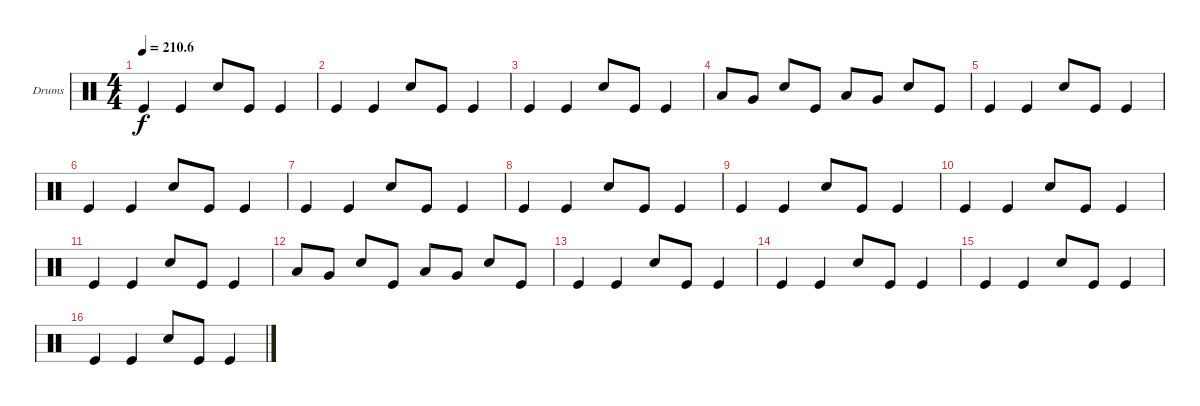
\defaultSystemsLayout 4
\bracketExtendMode groupsimilarinstruments
\firstSystemTrackNameOrientation horizontal
\otherSystemsTrackNameOrientation horizontal
\track ("Drumkit" "Drums") {instrument percussion}
\staff {score}
\articulation defaults
\ts (4 4)
\tempo
210.6
\accidentals auto
\clef neutral
\ottava regular
\simile none
\ks c "Kick (hit)".4{dy f} "Kick (hit)".4 "Snare (hit) 2".8 "Kick (hit)".8 "Kick (hit)".4
|
"Kick (hit)".4 "Kick (hit)".4 "Snare (hit) 2".8 "Kick (hit)".8 "Kick (hit)".4 |
"Kick (hit)".4 "Kick (hit)".4 "Snare (hit) 2".8 "Kick (hit)".8 "Kick (hit)".4 |
"Low Tom (hit)".8 "Very Low Tom (hit)".8 "Snare (hit) 2".8 "Kick (hit)".8 "Low Tom (hit)".8 "Very Low Tom (hit)".8 "Snare (hit) 2".8 "Kick (hit)".8 |
"Kick (hit)".4 "Kick (hit)".4 "Snare (hit) 2".8 "Kick (hit)".8 "Kick (hit)".4 |
"Kick (hit)".4 "Kick (hit)".4 "Snare (hit) 2".8 "Kick (hit)".8 "Kick (hit)".4 |
"Kick (hit)".4 "Kick (hit)".4 "Snare (hit) 2".8 "Kick (hit)".8 "Kick (hit)".4 |
"Kick (hit)".4 "Kick (hit)".4 "Snare (hit) 2".8 "Kick (hit)".8 "Kick (hit)".4 |
"Kick (hit)".4 "Kick (hit)".4 "Snare (hit) 2".8 "Kick (hit)".8 "Kick (hit)".4 |
"Kick (hit)".4 "Kick (hit)".4 "Snare (hit) 2".8 "Kick (hit)".8 "Kick (hit)".4 |
"Kick (hit)".4 "Kick (hit)".4 "Snare (hit) 2".8 "Kick (hit)".8 "Kick (hit)".4 |
"Low Tom (hit)".8 "Very Low Tom (hit)".8 "Snare (hit) 2".8 "Kick (hit)".8 "Low Tom (hit)".8 "Very Low Tom (hit)".8 "Snare (hit) 2".8 "Kick (hit)".8 |
"Kick (hit)".4 "Kick (hit)".4 "Snare (hit) 2".8 "Kick (hit)".8 "Kick (hit)".4 |
"Kick (hit)".4 "Kick (hit)".4 "Snare (hit) 2".8 "Kick (hit)".8 "Kick (hit)".4 |
"Kick (hit)".4 "Kick (hit)".4 "Snare (hit) 2".8 "Kick (hit)".8 "Kick (hit)".4 |
"Kick (hit)".4 "Kick (hit)".4 "Snare (hit) 2".8 "Kick (hit)".8 "Kick (hit)".4
